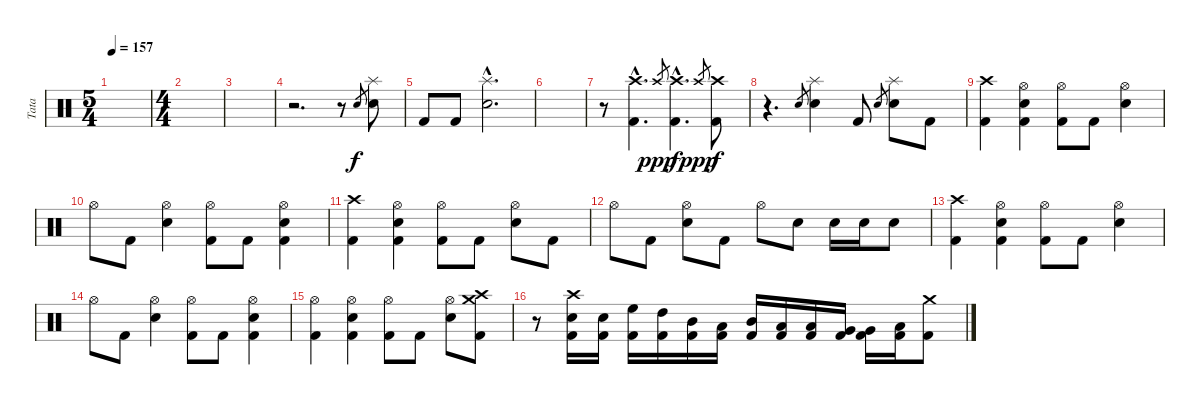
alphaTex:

\track ("Tata" "Tata") {instrument percussion}
\staff {score}
\articulation defaults
\ts (5 4)
\tempo 157
\clef neutral
\ks c
|
\ts (4 4)
|
|
r.2{d} r.8 "Electric Snare (hit)".8{gr} ("Electric Snare (hit)" "Splash (hit)").8 |
"Kick (hit) 2".8 "Kick (hit) 2".8 ("Electric Snare (hit)"{hac} "Splash (hit)"{hac}).2{d} |
|
r.8 ("Kick (hit) 2"{hac} "Crash high (hit)"{hac}).4{d} "Crash high (hit)".8{gr dy ppp} ("Kick (hit) 2"{hac} "Crash high (hit)"{hac}).4{d dy f} "Crash high (hit)".8{gr dy ppp} ("Kick (hit) 2" "Crash high (hit)").8{dy f} |
r.4{d} "Electric Snare (hit)".8{gr} ("Electric Snare (hit)" "Splash (hit)").4 "Kick (hit) 2".8 "Electric Snare (hit)".8{gr} ("Electric Snare (hit)" "Splash (hit)").8 "Kick (hit) 2".8 |
("Kick (hit) 2" "Crash high (hit)").4 ("Kick (hit) 2" "Electric Snare (hit)" "Hi-Hat (open)").4 ("Kick (hit) 2" "Hi-Hat (open)").8 "Kick (hit) 2".8 ("Electric Snare (hit)" "Hi-Hat (open)").4 |
"Hi-Hat (open)".8 "Kick (hit) 2".8 ("Electric Snare (hit)" "Hi-Hat (open)").4 ("Kick (hit) 2" "Hi-Hat (open)").8 "Kick (hit) 2".8 ("Kick (hit) 2" "Electric Snare (hit)" "Hi-Hat (open)").4 |
("Kick (hit) 2" "Crash high (hit)").4 ("Kick (hit) 2" "Electric Snare (hit)" "Hi-Hat (open)").4 ("Kick (hit) 2" "Hi-Hat (open)").8 "Kick (hit) 2".8 ("Electric Snare (hit)" "Hi-Hat (open)").8 "Kick (hit) 2".8 |
"Hi-Hat (open)".8 "Kick (hit) 2".8 ("Electric Snare (hit)" "Hi-Hat (open)").8 "Kick (hit) 2".8 "Hi-Hat (open)".8 "Electric Snare (hit)".8 "Electric Snare (hit)".16 "Electric Snare (hit)".16 "Electric Snare (hit)".8 |
("Kick (hit) 2" "Crash high (hit)").4 ("Kick (hit) 2" "Electric Snare (hit)" "Hi-Hat (open)").4 ("Kick (hit) 2" "Hi-Hat (open)").8 "Kick (hit) 2".8 ("Electric Snare (hit)" "Hi-Hat (open)").4 |
"Hi-Hat (open)".8 "Kick (hit) 2".8 ("Electric Snare (hit)" "Hi-Hat (open)").4 ("Kick (hit) 2" "Hi-Hat (open)").8 "Kick (hit) 2".8 ("Kick (hit) 2" "Electric Snare (hit)" "Hi-Hat (open)").4 |
("Kick (hit) 2" "Hi-Hat (open)").4 ("Kick (hit) 2" "Electric Snare (hit)" "Hi-Hat (open)").4 ("Kick (hit) 2" "Hi-Hat (open)").8 "Kick (hit) 2".8 ("Electric Snare (hit)" "Hi-Hat (open)").8 ("Kick (hit) 2" "Crash high (hit)" "Crash medium (hit)").8 |
r.8 ("Kick (hit) 2" "Electric Snare (hit)" "Crash high (hit)").16 ("Kick (hit) 2" "Electric Snare (hit)").16 ("Kick (hit) 2" "High Floor Tom (hit)").16 ("Kick (hit) 2" "High Tom (hit)").16 ("Kick (hit) 2" "Mid Tom (hit)").16 ("Kick (hit) 2" "Low Tom (hit)").16 ("Kick (hit) 2" "Mid Tom (hit)").16 ("Kick (hit) 2" "Low Tom (hit)").16 ("Kick (hit) 2" "Low Tom (hit)").16 ("Kick (hit) 2" "Very Low Tom (hit)").16 ("Kick (hit) 2" "Very Low Tom (hit)").16 ("Kick (hit) 2" "Low Floor Tom (hit)").16 ("Kick (hit) 2" "Crash medium (hit)").8
